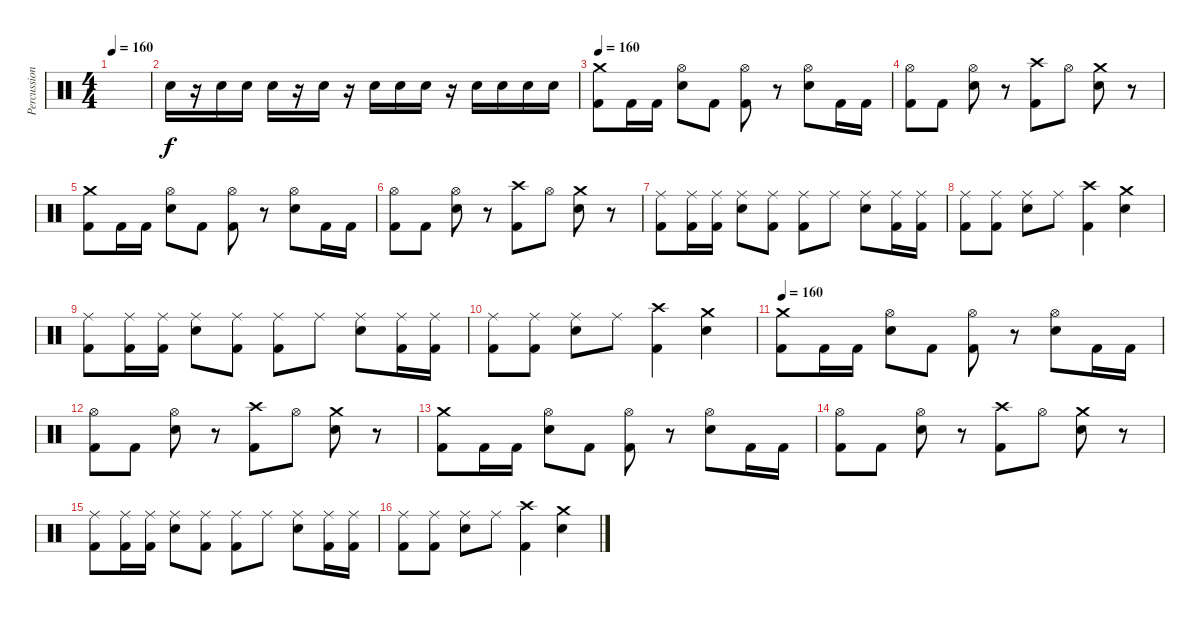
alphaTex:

\track ("Percussions" "Percussion") {instrument percussion}
\staff {score}
\articulation defaults
\ts (4 4)
\tempo 160
\clef neutral
\ks c
|
"Electric Snare (hit)".16 r.16 "Electric Snare (hit)".16 "Electric Snare (hit)".16 "Electric Snare (hit)".16 r.16 "Electric Snare (hit)".16 r.16 "Electric Snare (hit)".16 "Electric Snare (hit)".16 "Electric Snare (hit)".16 r.16 "Electric Snare (hit)".16 "Electric Snare (hit)".16 "Electric Snare (hit)".16 "Electric Snare (hit)".16 |
\tempo 160
("Crash medium (hit)" "Kick (hit) 2").8 "Kick (hit) 2".16 "Kick (hit) 2".16 ("Hi-Hat (open)" "Electric Snare (hit)").8 "Kick (hit) 2".8 ("Hi-Hat (open)" "Kick (hit) 2").8 r.8 ("Hi-Hat (open)" "Electric Snare (hit)").8 "Kick (hit) 2".16 "Kick (hit) 2".16 |
("Hi-Hat (open)" "Kick (hit) 2").8 "Kick (hit) 2".8 ("Hi-Hat (open)" "Electric Snare (hit)").8 r.8 ("Crash high (hit)" "Kick (hit) 2").8 "Hi-Hat (open)".8 ("Crash medium (hit)" "Electric Snare (hit)").8 r.8 |
("Crash medium (hit)" "Kick (hit) 2").8 "Kick (hit) 2".16 "Kick (hit) 2".16 ("Hi-Hat (open)" "Electric Snare (hit)").8 "Kick (hit) 2".8 ("Hi-Hat (open)" "Kick (hit) 2").8 r.8 ("Hi-Hat (open)" "Electric Snare (hit)").8 "Kick (hit) 2".16 "Kick (hit) 2".16 |
("Hi-Hat (open)" "Kick (hit) 2").8 "Kick (hit) 2".8 ("Hi-Hat (open)" "Electric Snare (hit)").8 r.8 ("Crash high (hit)" "Kick (hit) 2").8 "Hi-Hat (open)".8 ("Crash medium (hit)" "Electric Snare (hit)").8 r.8 |
("Ride (middle)" "Kick (hit) 2").8 ("Ride (middle)" "Kick (hit) 2").16 ("Ride (middle)" "Kick (hit) 2").16 ("Ride (middle)" "Electric Snare (hit)").8 ("Ride (middle)" "Kick (hit) 2").8 ("Ride (middle)" "Kick (hit) 2").8 "Ride (middle)".8 ("Ride (middle)" "Electric Snare (hit)").8 ("Ride (middle)" "Kick (hit) 2").16 ("Ride (middle)" "Kick (hit) 2").16 |
("Ride (middle)" "Kick (hit) 2").8 ("Ride (middle)" "Kick (hit) 2").8 ("Ride (middle)" "Electric Snare (hit)").8 "Ride (middle)".8 ("Crash high (hit)" "Kick (hit) 2").4 ("Crash medium (hit)" "Electric Snare (hit)").4 |
("Ride (middle)" "Kick (hit) 2").8 ("Ride (middle)" "Kick (hit) 2").16 ("Ride (middle)" "Kick (hit) 2").16 ("Ride (middle)" "Electric Snare (hit)").8 ("Ride (middle)" "Kick (hit) 2").8 ("Ride (middle)" "Kick (hit) 2").8 "Ride (middle)".8 ("Ride (middle)" "Electric Snare (hit)").8 ("Ride (middle)" "Kick (hit) 2").16 ("Ride (middle)" "Kick (hit) 2").16 |
("Ride (middle)" "Kick (hit) 2").8 ("Ride (middle)" "Kick (hit) 2").8 ("Ride (middle)" "Electric Snare (hit)").8 "Ride (middle)".8 ("Crash high (hit)" "Kick (hit) 2").4 ("Crash medium (hit)" "Electric Snare (hit)").4 |
\tempo 160
("Crash medium (hit)" "Kick (hit) 2").8 "Kick (hit) 2".16 "Kick (hit) 2".16 ("Hi-Hat (open)" "Electric Snare (hit)").8 "Kick (hit) 2".8 ("Hi-Hat (open)" "Kick (hit) 2").8 r.8 ("Hi-Hat (open)" "Electric Snare (hit)").8 "Kick (hit) 2".16 "Kick (hit) 2".16 |
("Hi-Hat (open)" "Kick (hit) 2").8 "Kick (hit) 2".8 ("Hi-Hat (open)" "Electric Snare (hit)").8 r.8 ("Crash high (hit)" "Kick (hit) 2").8 "Hi-Hat (open)".8 ("Crash medium (hit)" "Electric Snare (hit)").8 r.8 |
("Crash medium (hit)" "Kick (hit) 2").8 "Kick (hit) 2".16 "Kick (hit) 2".16 ("Hi-Hat (open)" "Electric Snare (hit)").8 "Kick (hit) 2".8 ("Hi-Hat (open)" "Kick (hit) 2").8 r.8 ("Hi-Hat (open)" "Electric Snare (hit)").8 "Kick (hit) 2".16 "Kick (hit) 2".16 |
("Hi-Hat (open)" "Kick (hit) 2").8 "Kick (hit) 2".8 ("Hi-Hat (open)" "Electric Snare (hit)").8 r.8 ("Crash high (hit)" "Kick (hit) 2").8 "Hi-Hat (open)".8 ("Crash medium (hit)" "Electric Snare (hit)").8 r.8 |
("Ride (middle)" "Kick (hit) 2").8 ("Ride (middle)" "Kick (hit) 2").16 ("Ride (middle)" "Kick (hit) 2").16 ("Ride (middle)" "Electric Snare (hit)").8 ("Ride (middle)" "Kick (hit) 2").8 ("Ride (middle)" "Kick (hit) 2").8 "Ride (middle)".8 ("Ride (middle)" "Electric Snare (hit)").8 ("Ride (middle)" "Kick (hit) 2").16 ("Ride (middle)" "Kick (hit) 2").16 |
("Ride (middle)" "Kick (hit) 2").8 ("Ride (middle)" "Kick (hit) 2").8 ("Ride (middle)" "Electric Snare (hit)").8 "Ride (middle)".8 ("Crash high (hit)" "Kick (hit) 2").4 ("Crash medium (hit)" "Electric Snare (hit)").4
